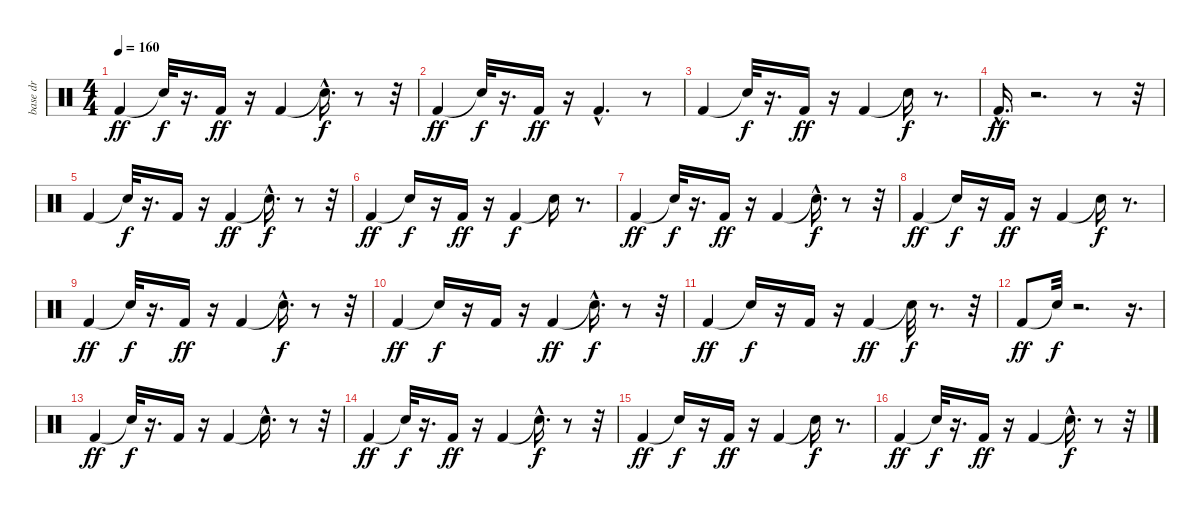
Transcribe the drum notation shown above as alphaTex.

\track ("base dr" "base dr") {instrument percussion}
\staff {score}
\articulation defaults
\ts (4 4)
\tempo 160
\clef neutral
\ks c "Kick (hit) 2".4{dy ff} "Snare (hit)"{t}.32{dy f}
r.16{d} "Kick (hit) 2".16{dy ff} r.16 "Kick (hit) 2".4 "Snare (hit)"{hac t}.16{d dy f} r.8 r.32 |
"Kick (hit) 2".4{dy ff} "Snare (hit)"{t}.32{dy f} r.16{d} "Kick (hit) 2".16{dy ff} r.16 "Kick (hit) 2"{hac}.4{d} r.8 |
"Kick (hit) 2".4 "Snare (hit)"{t}.32{dy f} r.16{d} "Kick (hit) 2".16{dy ff} r.16 "Kick (hit) 2".4 "Snare (hit)"{t}.16{dy f} r.8{d} |
"Kick (hit) 2"{hac}.16{d dy ff} r.2{d} r.8 r.32 |
"Kick (hit) 2".4 "Snare (hit)"{t}.32{dy f} r.16{d} "Kick (hit) 2".16 r.16 "Kick (hit) 2".4{dy ff} "Snare (hit)"{hac t}.16{d dy f} r.8 r.32 |
"Kick (hit) 2".4{dy ff} "Snare (hit)"{t}.16{dy f} r.16 "Kick (hit) 2".16{dy ff} r.16 "Kick (hit) 2".4{dy f} "Snare (hit)"{t}.16 r.8{d} |
"Kick (hit) 2".4{dy ff} "Snare (hit)"{t}.32{dy f} r.16{d} "Kick (hit) 2".16{dy ff} r.16 "Kick (hit) 2".4 "Snare (hit)"{hac t}.16{d dy f} r.8 r.32 |
"Kick (hit) 2".4{dy ff} "Snare (hit)"{t}.16{dy f} r.16 "Kick (hit) 2".16{dy ff} r.16 "Kick (hit) 2".4 "Snare (hit)"{t}.16{dy f} r.8{d} |
"Kick (hit) 2".4{dy ff} "Snare (hit)"{t}.32{dy f} r.16{d} "Kick (hit) 2".16{dy ff} r.16 "Kick (hit) 2".4 "Snare (hit)"{hac t}.16{d dy f} r.8 r.32 |
"Kick (hit) 2".4{dy ff} "Snare (hit)"{t}.16{dy f} r.16 "Kick (hit) 2".16 r.16 "Kick (hit) 2".4{dy ff} "Snare (hit)"{hac t}.16{d dy f} r.8 r.32 |
"Kick (hit) 2".4{dy ff} "Snare (hit)"{t}.16{dy f} r.16 "Kick (hit) 2".16 r.16 "Kick (hit) 2".4{dy ff} "Snare (hit)"{t}.32{dy f} r.8{d} r.32 |
"Kick (hit) 2".8{dy ff} "Snare (hit)"{t}.32{dy f} r.2{d} r.16{d} |
"Kick (hit) 2".4{dy ff} "Snare (hit)"{t}.32{dy f} r.16{d} "Kick (hit) 2".16 r.16 "Kick (hit) 2".4 "Snare (hit)"{hac t}.16{d} r.8 r.32 |
"Kick (hit) 2".4{dy ff} "Snare (hit)"{t}.32{dy f} r.16{d} "Kick (hit) 2".16{dy ff} r.16 "Kick (hit) 2".4 "Snare (hit)"{hac t}.16{d dy f} r.8 r.32 |
"Kick (hit) 2".4{dy ff} "Snare (hit)"{t}.16{dy f} r.16 "Kick (hit) 2".16{dy ff} r.16 "Kick (hit) 2".4 "Snare (hit)"{t}.16{dy f} r.8{d} |
"Kick (hit) 2".4{dy ff} "Snare (hit)"{t}.32{dy f} r.16{d} "Kick (hit) 2".16{dy ff} r.16 "Kick (hit) 2".4 "Snare (hit)"{hac t}.16{d dy f} r.8 r.32
